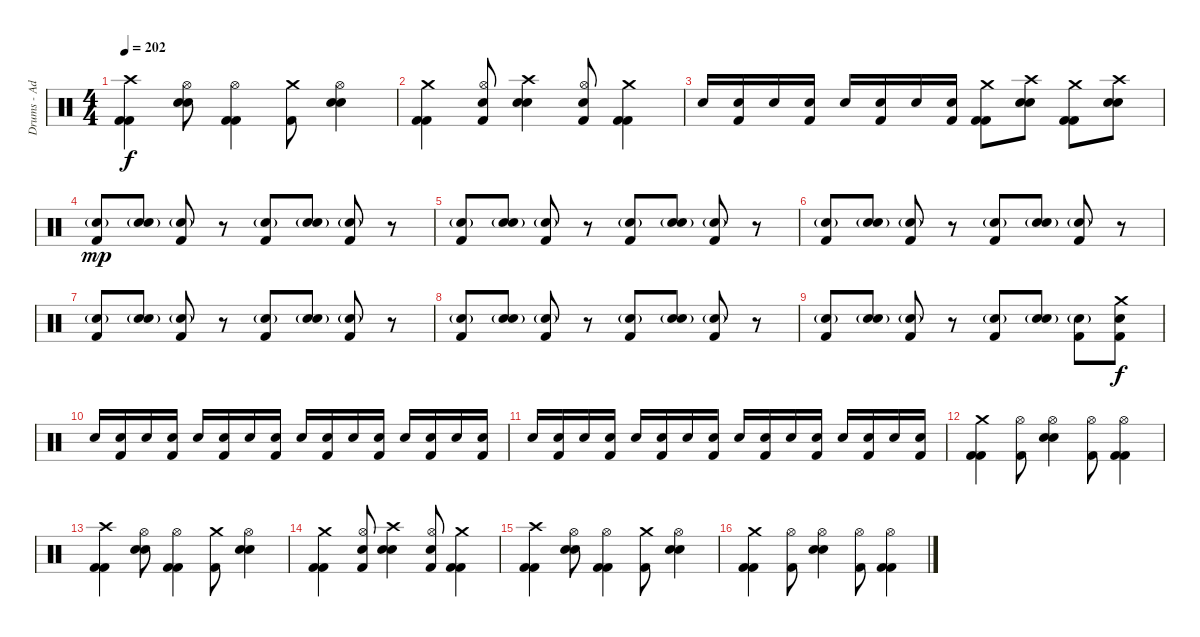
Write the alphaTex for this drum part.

\track ("Drums - Adam" "Drums - Ad") {instrument percussion}
\staff {score}
\articulation defaults
\ts (4 4)
\tempo 202
\clef neutral
\ks c
("Crash high (hit)" "Kick (hit) 2" "Kick (hit) 2").4{dy f} ("Hi-Hat (open)" "Snare (hit) 2" "Electric Snare (hit)").8 ("Hi-Hat (open)" "Kick (hit) 2" "Kick (hit) 2").4 ("Crash medium (hit)" "Kick (hit) 2").8 ("Hi-Hat (open)" "Snare (hit) 2" "Electric Snare (hit)").4 |
("Crash medium (hit)" "Kick (hit) 2" "Kick (hit) 2").4 ("Hi-Hat (open)" "Electric Snare (hit)" "Kick (hit) 2").8 ("Crash high (hit)" "Snare (hit) 2" "Electric Snare (hit)").4 ("Hi-Hat (open)" "Electric Snare (hit)" "Kick (hit) 2").8 ("Crash medium (hit)" "Kick (hit) 2" "Kick (hit) 2").4 |
"Electric Snare (hit)".16 ("Electric Snare (hit)" "Kick (hit) 2").16 "Electric Snare (hit)".16 ("Electric Snare (hit)" "Kick (hit) 2").16 "Electric Snare (hit)".16 ("Electric Snare (hit)" "Kick (hit) 2").16 "Electric Snare (hit)".16 ("Electric Snare (hit)" "Kick (hit) 2").16 ("Crash medium (hit)" "Kick (hit) 2" "Kick (hit) 2").8 ("Crash high (hit)" "Snare (hit) 2" "Electric Snare (hit)").8 ("Crash medium (hit)" "Kick (hit) 2" "Kick (hit) 2").8 ("Crash high (hit)" "Snare (hit) 2" "Electric Snare (hit)").8 |
("Electric Snare (hit)"{g} "Kick (hit) 2").8{dy mp} ("Electric Snare (hit)"{g} "Electric Snare (hit)").8 ("Electric Snare (hit)"{g} "Kick (hit) 2").8 r.8 ("Electric Snare (hit)"{g} "Kick (hit) 2").8 ("Electric Snare (hit)"{g} "Electric Snare (hit)").8 ("Electric Snare (hit)"{g} "Kick (hit) 2").8 r.8 |
("Electric Snare (hit)"{g} "Kick (hit) 2").8 ("Electric Snare (hit)"{g} "Electric Snare (hit)").8 ("Electric Snare (hit)"{g} "Kick (hit) 2").8 r.8 ("Electric Snare (hit)"{g} "Kick (hit) 2").8 ("Electric Snare (hit)"{g} "Electric Snare (hit)").8 ("Electric Snare (hit)"{g} "Kick (hit) 2").8 r.8 |
("Electric Snare (hit)"{g} "Kick (hit) 2").8 ("Electric Snare (hit)"{g} "Electric Snare (hit)").8 ("Electric Snare (hit)"{g} "Kick (hit) 2").8 r.8 ("Electric Snare (hit)"{g} "Kick (hit) 2").8 ("Electric Snare (hit)"{g} "Electric Snare (hit)").8 ("Electric Snare (hit)"{g} "Kick (hit) 2").8 r.8 |
("Electric Snare (hit)"{g} "Kick (hit) 2").8 ("Electric Snare (hit)"{g} "Electric Snare (hit)").8 ("Electric Snare (hit)"{g} "Kick (hit) 2").8 r.8 ("Electric Snare (hit)"{g} "Kick (hit) 2").8 ("Electric Snare (hit)"{g} "Electric Snare (hit)").8 ("Electric Snare (hit)"{g} "Kick (hit) 2").8 r.8 |
("Electric Snare (hit)"{g} "Kick (hit) 2").8 ("Electric Snare (hit)"{g} "Electric Snare (hit)").8 ("Electric Snare (hit)"{g} "Kick (hit) 2").8 r.8 ("Electric Snare (hit)"{g} "Kick (hit) 2").8 ("Electric Snare (hit)"{g} "Electric Snare (hit)").8 ("Electric Snare (hit)"{g} "Kick (hit) 2").8 r.8 |
("Electric Snare (hit)"{g} "Kick (hit) 2").8 ("Electric Snare (hit)"{g} "Electric Snare (hit)").8 ("Electric Snare (hit)"{g} "Kick (hit) 2").8 r.8 ("Electric Snare (hit)"{g} "Kick (hit) 2").8 ("Electric Snare (hit)"{g} "Electric Snare (hit)").8 ("Electric Snare (hit)"{g} "Kick (hit) 2").8 ("Crash medium (hit)" "Electric Snare (hit)" "Kick (hit) 2").8{dy f} |
"Electric Snare (hit)".16 ("Electric Snare (hit)" "Kick (hit) 2").16 "Electric Snare (hit)".16 ("Electric Snare (hit)" "Kick (hit) 2").16 "Electric Snare (hit)".16 ("Electric Snare (hit)" "Kick (hit) 2").16 "Electric Snare (hit)".16 ("Electric Snare (hit)" "Kick (hit) 2").16 "Electric Snare (hit)".16 ("Electric Snare (hit)" "Kick (hit) 2").16 "Electric Snare (hit)".16 ("Electric Snare (hit)" "Kick (hit) 2").16 "Electric Snare (hit)".16 ("Electric Snare (hit)" "Kick (hit) 2").16 "Electric Snare (hit)".16 ("Electric Snare (hit)" "Kick (hit) 2").16 |
"Electric Snare (hit)".16 ("Electric Snare (hit)" "Kick (hit) 2").16 "Electric Snare (hit)".16 ("Electric Snare (hit)" "Kick (hit) 2").16 "Electric Snare (hit)".16 ("Electric Snare (hit)" "Kick (hit) 2").16 "Electric Snare (hit)".16 ("Electric Snare (hit)" "Kick (hit) 2").16 "Electric Snare (hit)".16 ("Electric Snare (hit)" "Kick (hit) 2").16 "Electric Snare (hit)".16 ("Electric Snare (hit)" "Kick (hit) 2").16 "Electric Snare (hit)".16 ("Electric Snare (hit)" "Kick (hit) 2").16 "Electric Snare (hit)".16 ("Electric Snare (hit)" "Kick (hit) 2").16 |
("Crash medium (hit)" "Kick (hit) 2" "Kick (hit) 2").4 ("Hi-Hat (open)" "Kick (hit) 2").8 ("Hi-Hat (open)" "Snare (hit) 2" "Electric Snare (hit)").4 ("Hi-Hat (open)" "Kick (hit) 2").8 ("Hi-Hat (open)" "Kick (hit) 2" "Kick (hit) 2").4 |
("Crash high (hit)" "Kick (hit) 2" "Kick (hit) 2").4 ("Hi-Hat (open)" "Snare (hit) 2" "Electric Snare (hit)").8 ("Hi-Hat (open)" "Kick (hit) 2" "Kick (hit) 2").4 ("Crash medium (hit)" "Kick (hit) 2").8 ("Hi-Hat (open)" "Snare (hit) 2" "Electric Snare (hit)").4 |
("Crash medium (hit)" "Kick (hit) 2" "Kick (hit) 2").4 ("Hi-Hat (open)" "Electric Snare (hit)" "Kick (hit) 2").8 ("Crash high (hit)" "Snare (hit) 2" "Electric Snare (hit)").4 ("Hi-Hat (open)" "Electric Snare (hit)" "Kick (hit) 2").8 ("Crash medium (hit)" "Kick (hit) 2" "Kick (hit) 2").4 |
("Crash high (hit)" "Kick (hit) 2" "Kick (hit) 2").4 ("Hi-Hat (open)" "Snare (hit) 2" "Electric Snare (hit)").8 ("Hi-Hat (open)" "Kick (hit) 2" "Kick (hit) 2").4 ("Crash medium (hit)" "Kick (hit) 2").8 ("Hi-Hat (open)" "Snare (hit) 2" "Electric Snare (hit)").4 |
("Crash medium (hit)" "Kick (hit) 2" "Kick (hit) 2").4 ("Hi-Hat (open)" "Kick (hit) 2").8 ("Hi-Hat (open)" "Snare (hit) 2" "Electric Snare (hit)").4 ("Hi-Hat (open)" "Kick (hit) 2").8 ("Hi-Hat (open)" "Kick (hit) 2" "Kick (hit) 2").4
